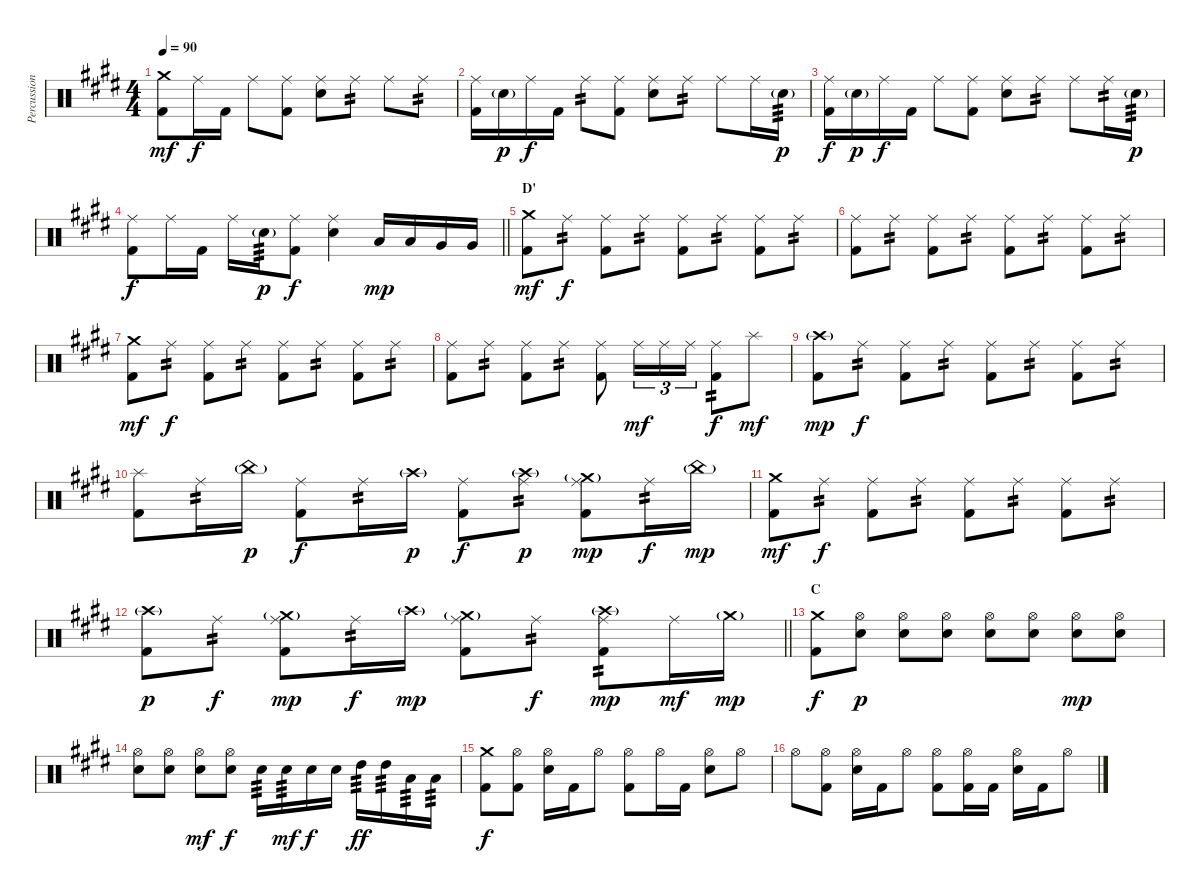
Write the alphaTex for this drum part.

\track ("Percussion" "Percussion") {instrument percussion}
\staff {score}
\articulation defaults
\ts (4 4)
\tempo 90
\clef neutral
\ks c#minor
("Crash medium (hit)" "Kick (hit) 2").8{dy mf} "Ride (middle)".16{dy f} "Kick (hit) 2".16 "Ride (middle)".8 ("Ride (middle)" "Kick (hit) 2").8 ("Ride (middle)" "Snare (hit) 2").8 "Ride (middle)".8{tp 2} "Ride (middle)".8 "Ride (middle)".8{tp 2} |
("Ride (middle)" "Kick (hit) 2").16 "Snare (hit) 2"{g}.16{dy p} "Ride (middle)".16{dy f} "Kick (hit) 2".16 "Ride (middle)".8{tp 2} ("Ride (middle)" "Kick (hit) 2").8 ("Ride (middle)" "Snare (hit) 2").8 "Ride (middle)".8{tp 2} "Ride (middle)".8 "Ride (middle)".16 "Snare (hit) 2"{g}.16{tp 3 dy p} |
("Ride (middle)" "Kick (hit) 2").16{dy f} "Snare (hit) 2"{g}.16{dy p} "Ride (middle)".16{dy f} "Kick (hit) 2".16 "Ride (middle)".8 ("Ride (middle)" "Kick (hit) 2").8 ("Ride (middle)" "Snare (hit) 2").8 "Ride (middle)".8{tp 2} "Ride (middle)".8 "Ride (middle)".16{tp 2} "Snare (hit) 2"{g}.16{tp 3 dy p} |
\barLineRight lightlight
("Ride (middle)" "Kick (hit) 2").8{dy f} "Ride (middle)".16 "Kick (hit) 2".16 "Ride (middle)".16 "Snare (hit) 2"{g}.16{tp 3 dy p} ("Ride (middle)" "Kick (hit) 2").8{dy f} ("Ride (middle)" "Snare (hit) 2").4 "Low Tom (hit)".16{dy mp} "Low Tom (hit)".16 "Very Low Tom (hit)".16 "Very Low Tom (hit)".16 |
\section ("" "D'")
("Crash medium (hit)" "Kick (hit) 2").8{dy mf} "Ride (middle)".8{tp 2 dy f} ("Ride (middle)" "Kick (hit) 2").8 "Ride (middle)".8{tp 2} ("Ride (middle)" "Kick (hit) 2").8 "Ride (middle)".8{tp 2} ("Ride (middle)" "Kick (hit) 2").8 "Ride (middle)".8{tp 2} |
("Ride (middle)" "Kick (hit) 2").8 "Ride (middle)".8{tp 2} ("Ride (middle)" "Kick (hit) 2").8 "Ride (middle)".8{tp 2} ("Ride (middle)" "Kick (hit) 2").8 "Ride (middle)".8{tp 2} ("Ride (middle)" "Kick (hit) 2").8 "Ride (middle)".8{tp 2} |
("Crash medium (hit)" "Kick (hit) 2").8{dy mf} "Ride (middle)".8{tp 2 dy f} ("Ride (middle)" "Kick (hit) 2").8 "Ride (middle)".8{tp 2} ("Ride (middle)" "Kick (hit) 2").8 "Ride (middle)".8{tp 2} ("Ride (middle)" "Kick (hit) 2").8 "Ride (middle)".8{tp 2} |
("Ride (middle)" "Kick (hit) 2").8 "Ride (middle)".8{tp 2} ("Ride (middle)" "Kick (hit) 2").8 "Ride (middle)".8{tp 2} ("Ride (middle)" "Kick (hit) 2").8 "Ride (middle)".16{tu (3 2) dy mf} "Ride (middle)".16{tu (3 2)} "Ride (middle)".16{tu (3 2)} ("Ride (middle)" "Kick (hit) 2").8{tp 2 dy f} "Splash (hit)".8{dy mf} |
("Crash high (hit)"{g} "Kick (hit) 2").8{dy mp} "Ride (middle)".8{tp 2 dy f} ("Ride (middle)" "Kick (hit) 2").8 "Ride (middle)".8{tp 2} ("Ride (middle)" "Kick (hit) 2").8 "Ride (middle)".8{tp 2} ("Ride (middle)" "Kick (hit) 2").8 "Ride (middle)".8{tp 2} |
("Splash (hit)" "Kick (hit) 2").8 "Ride (middle)".16{tp 2} "China (hit)"{g}.16{dy p} ("Ride (middle)" "Kick (hit) 2").8{dy f} "Ride (middle)".16{tp 2} "Crash high (hit)"{g}.16{dy p} ("Ride (middle)" "Kick (hit) 2").8{dy f} ("Ride (middle)" "Crash high (hit)"{g}).8{tp 2 dy p} ("Ride (middle)" "Crash medium (hit)"{g} "Kick (hit) 2").8{dy mp} "Ride (middle)".16{tp 2 dy f} "China (hit)"{g}.16{dy mp} |
("Crash medium (hit)" "Kick (hit) 2").8{dy mf} "Ride (middle)".8{tp 2 dy f} ("Ride (middle)" "Kick (hit) 2").8 "Ride (middle)".8{tp 2} ("Ride (middle)" "Kick (hit) 2").8 "Ride (middle)".8{tp 2} ("Ride (middle)" "Kick (hit) 2").8 "Ride (middle)".8{tp 2} |
\barLineRight lightlight
("Crash high (hit)"{g} "Kick (hit) 2").8{dy p} "Ride (middle)".8{tp 2 dy f} ("Ride (middle)" "Crash medium (hit)"{g} "Kick (hit) 2").8{dy mp} "Ride (middle)".16{tp 2 dy f} "Crash high (hit)"{g}.16{dy mp} ("Ride (middle)" "Crash medium (hit)"{g} "Kick (hit) 2").8 "Ride (middle)".8{tp 2 dy f} ("Ride (middle)" "Crash high (hit)"{g} "Kick (hit) 2").8{tp 2 dy mp} "Ride (middle)".16{dy mf} "Crash medium (hit)"{g}.16{dy mp} |
\section ("" "C")
("Crash medium (hit)" "Kick (hit) 2").8{dy f} ("Hi-Hat (open)" "Snare (hit) 2").8{dy p} ("Hi-Hat (open)" "Snare (hit) 2").8 ("Hi-Hat (open)" "Snare (hit) 2").8 ("Hi-Hat (open)" "Snare (hit) 2").8 ("Hi-Hat (open)" "Snare (hit) 2").8 ("Hi-Hat (open)" "Snare (hit) 2").8{dy mp} ("Hi-Hat (open)" "Snare (hit) 2").8 |
("Hi-Hat (open)" "Snare (hit) 2").8 ("Hi-Hat (open)" "Snare (hit) 2").8 ("Hi-Hat (open)" "Snare (hit) 2").8{dy mf} ("Hi-Hat (open)" "Snare (hit) 2").8{dy f} "Snare (hit) 2".16{tp 3} "Snare (hit) 2".16{tp 3 dy mf} "Snare (hit) 2".16{dy f} "Snare (hit) 2".16 "High Tom (hit)".16{tp 3 dy ff} "High Tom (hit)".16{tp 3} "Low Tom (hit)".16{tp 3} "Low Tom (hit)".16{tp 3} |
("Crash medium (hit)" "Kick (hit) 2").8{dy f} ("Hi-Hat (open)" "Kick (hit) 2").8 ("Hi-Hat (open)" "Snare (hit) 2").16 "Kick (hit) 2".16 "Hi-Hat (open)".8 ("Hi-Hat (open)" "Kick (hit) 2").8 "Hi-Hat (open)".16 "Kick (hit) 2".16 ("Hi-Hat (open)" "Snare (hit) 2").8 "Hi-Hat (open)".8 |
"Hi-Hat (open)".8 ("Hi-Hat (open)" "Kick (hit) 2").8 ("Hi-Hat (open)" "Snare (hit) 2").16 "Kick (hit) 2".16 "Hi-Hat (open)".8 ("Hi-Hat (open)" "Kick (hit) 2").8 ("Hi-Hat (open)" "Kick (hit) 2").16 "Kick (hit) 2".16 ("Hi-Hat (open)" "Snare (hit) 2").16 "Kick (hit) 2".16 "Hi-Hat (open)".8
